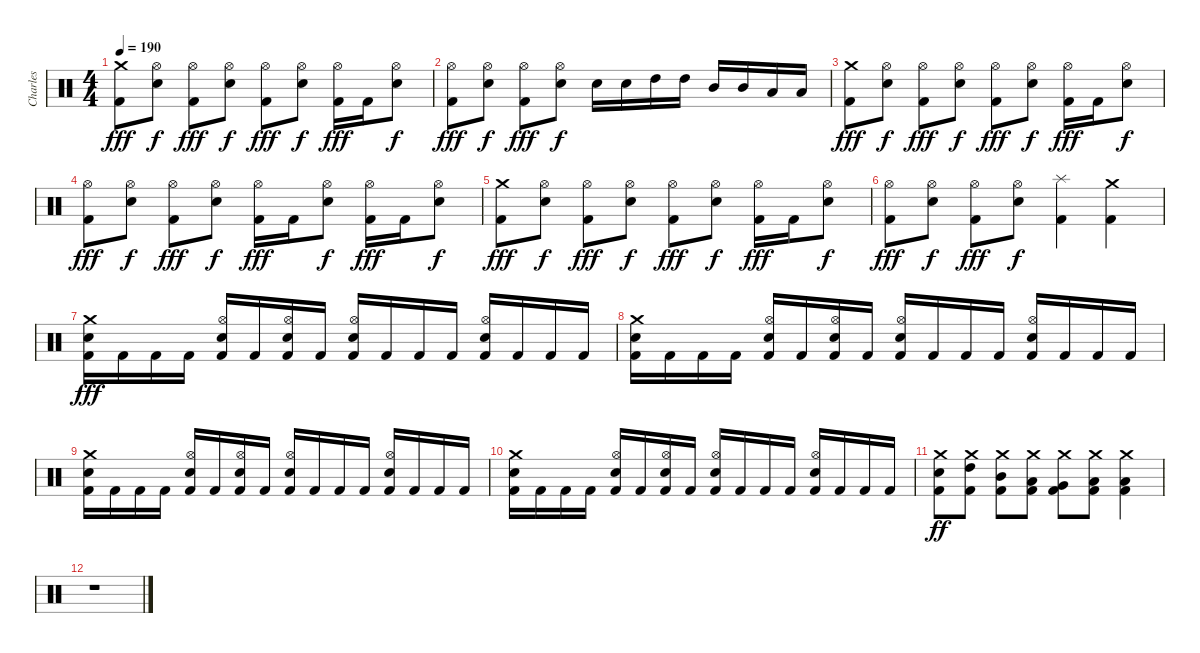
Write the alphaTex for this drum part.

\track ("Charles" "Charles") {instrument percussion}
\staff {score}
\articulation defaults
\ts (4 4)
\tempo 190
\clef neutral
\ks c
("Crash medium (hit)" "Kick (hit) 2").8{dy fff} ("Hi-Hat (open)" "Electric Snare (hit)").8{dy f} ("Hi-Hat (open)" "Kick (hit) 2").8{dy fff} ("Hi-Hat (open)" "Electric Snare (hit)").8{dy f} ("Hi-Hat (open)" "Kick (hit) 2").8{dy fff} ("Hi-Hat (open)" "Electric Snare (hit)").8{dy f} ("Hi-Hat (open)" "Kick (hit) 2").16{dy fff} "Kick (hit) 2".16 ("Hi-Hat (open)" "Electric Snare (hit)").8{dy f} |
("Hi-Hat (open)" "Kick (hit) 2").8{dy fff} ("Hi-Hat (open)" "Electric Snare (hit)").8{dy f} ("Hi-Hat (open)" "Kick (hit) 2").8{dy fff} ("Hi-Hat (open)" "Electric Snare (hit)").8{dy f} "Electric Snare (hit)".16 "Electric Snare (hit)".16 "High Tom (hit)".16 "High Tom (hit)".16 "Mid Tom (hit)".16 "Mid Tom (hit)".16 "Low Tom (hit)".16 "Low Tom (hit)".16 |
("Crash medium (hit)" "Kick (hit) 2").8{dy fff} ("Hi-Hat (open)" "Electric Snare (hit)").8{dy f} ("Hi-Hat (open)" "Kick (hit) 2").8{dy fff} ("Hi-Hat (open)" "Electric Snare (hit)").8{dy f} ("Hi-Hat (open)" "Kick (hit) 2").8{dy fff} ("Hi-Hat (open)" "Electric Snare (hit)").8{dy f} ("Hi-Hat (open)" "Kick (hit) 2").16{dy fff} "Kick (hit) 2".16 ("Hi-Hat (open)" "Electric Snare (hit)").8{dy f} |
("Hi-Hat (open)" "Kick (hit) 2").8{dy fff} ("Hi-Hat (open)" "Electric Snare (hit)").8{dy f} ("Hi-Hat (open)" "Kick (hit) 2").8{dy fff} ("Hi-Hat (open)" "Electric Snare (hit)").8{dy f} ("Hi-Hat (open)" "Kick (hit) 2").16{dy fff} "Kick (hit) 2".16 ("Hi-Hat (open)" "Electric Snare (hit)").8{dy f} ("Hi-Hat (open)" "Kick (hit) 2").16{dy fff} "Kick (hit) 2".16 ("Hi-Hat (open)" "Electric Snare (hit)").8{dy f} |
("Crash medium (hit)" "Kick (hit) 2").8{dy fff} ("Hi-Hat (open)" "Electric Snare (hit)").8{dy f} ("Hi-Hat (open)" "Kick (hit) 2").8{dy fff} ("Hi-Hat (open)" "Electric Snare (hit)").8{dy f} ("Hi-Hat (open)" "Kick (hit) 2").8{dy fff} ("Hi-Hat (open)" "Electric Snare (hit)").8{dy f} ("Hi-Hat (open)" "Kick (hit) 2").16{dy fff} "Kick (hit) 2".16 ("Hi-Hat (open)" "Electric Snare (hit)").8{dy f} |
("Hi-Hat (open)" "Kick (hit) 2").8{dy fff} ("Hi-Hat (open)" "Electric Snare (hit)").8{dy f} ("Hi-Hat (open)" "Kick (hit) 2").8{dy fff} ("Hi-Hat (open)" "Electric Snare (hit)").8{dy f} ("Splash (hit)" "Kick (hit) 2").4 ("Crash medium (hit)" "Kick (hit) 2").4 |
("Crash medium (hit)" "Electric Snare (hit)" "Kick (hit) 2").16{dy fff} "Kick (hit) 2".16 "Kick (hit) 2".16 "Kick (hit) 2".16 ("Hi-Hat (open)" "Electric Snare (hit)" "Kick (hit) 2").16 "Kick (hit) 2".16 ("Hi-Hat (open)" "Electric Snare (hit)" "Kick (hit) 2").16 "Kick (hit) 2".16 ("Hi-Hat (open)" "Electric Snare (hit)" "Kick (hit) 2").16 "Kick (hit) 2".16 "Kick (hit) 2".16 "Kick (hit) 2".16 ("Hi-Hat (open)" "Electric Snare (hit)" "Kick (hit) 2").16 "Kick (hit) 2".16 "Kick (hit) 2".16 "Kick (hit) 2".16 |
("Crash medium (hit)" "Electric Snare (hit)" "Kick (hit) 2").16 "Kick (hit) 2".16 "Kick (hit) 2".16 "Kick (hit) 2".16 ("Hi-Hat (open)" "Electric Snare (hit)" "Kick (hit) 2").16 "Kick (hit) 2".16 ("Hi-Hat (open)" "Electric Snare (hit)" "Kick (hit) 2").16 "Kick (hit) 2".16 ("Hi-Hat (open)" "Electric Snare (hit)" "Kick (hit) 2").16 "Kick (hit) 2".16 "Kick (hit) 2".16 "Kick (hit) 2".16 ("Hi-Hat (open)" "Electric Snare (hit)" "Kick (hit) 2").16 "Kick (hit) 2".16 "Kick (hit) 2".16 "Kick (hit) 2".16 |
("Crash medium (hit)" "Electric Snare (hit)" "Kick (hit) 2").16 "Kick (hit) 2".16 "Kick (hit) 2".16 "Kick (hit) 2".16 ("Hi-Hat (open)" "Electric Snare (hit)" "Kick (hit) 2").16 "Kick (hit) 2".16 ("Hi-Hat (open)" "Electric Snare (hit)" "Kick (hit) 2").16 "Kick (hit) 2".16 ("Hi-Hat (open)" "Electric Snare (hit)" "Kick (hit) 2").16 "Kick (hit) 2".16 "Kick (hit) 2".16 "Kick (hit) 2".16 ("Hi-Hat (open)" "Electric Snare (hit)" "Kick (hit) 2").16 "Kick (hit) 2".16 "Kick (hit) 2".16 "Kick (hit) 2".16 |
("Crash medium (hit)" "Electric Snare (hit)" "Kick (hit) 2").16 "Kick (hit) 2".16 "Kick (hit) 2".16 "Kick (hit) 2".16 ("Hi-Hat (open)" "Electric Snare (hit)" "Kick (hit) 2").16 "Kick (hit) 2".16 ("Hi-Hat (open)" "Electric Snare (hit)" "Kick (hit) 2").16 "Kick (hit) 2".16 ("Hi-Hat (open)" "Electric Snare (hit)" "Kick (hit) 2").16 "Kick (hit) 2".16 "Kick (hit) 2".16 "Kick (hit) 2".16 ("Hi-Hat (open)" "Electric Snare (hit)" "Kick (hit) 2").16 "Kick (hit) 2".16 "Kick (hit) 2".16 "Kick (hit) 2".16 |
("Crash medium (hit)" "Electric Snare (hit)" "Kick (hit) 2").8{dy ff} ("Crash medium (hit)" "High Tom (hit)" "Kick (hit) 2").8 ("Crash medium (hit)" "Mid Tom (hit)" "Kick (hit) 2").8 ("Crash medium (hit)" "Low Tom (hit)" "Kick (hit) 2").8 ("Crash medium (hit)" "Very Low Tom (hit)" "Kick (hit) 2").8 ("Crash medium (hit)" "Low Floor Tom (hit)" "Kick (hit) 2").8 ("Crash medium (hit)" "Low Floor Tom (hit)" "Kick (hit) 2").4 |
r.1
